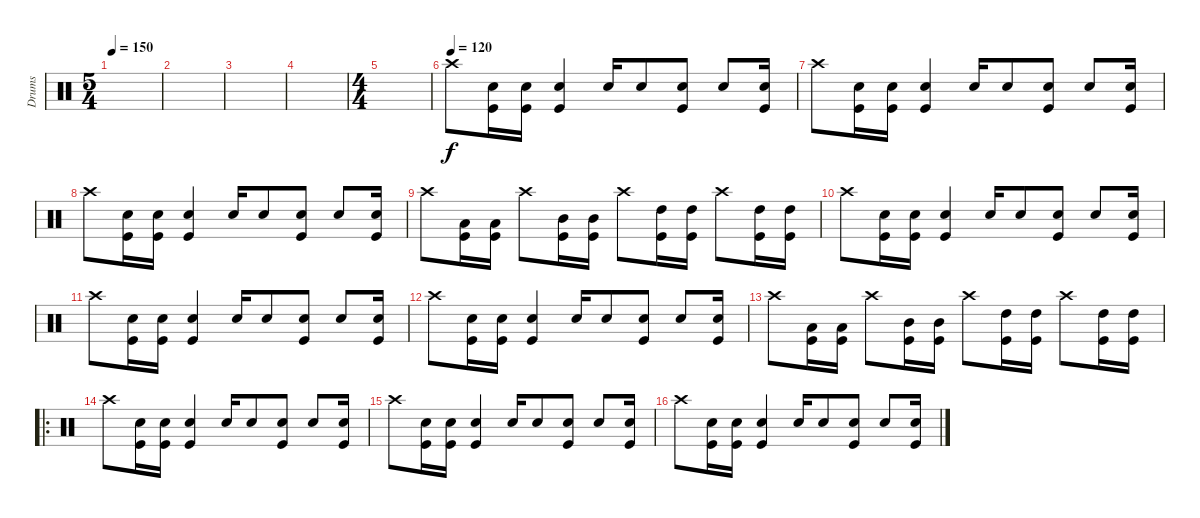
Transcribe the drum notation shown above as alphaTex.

\track ("Drums" "Drums") {instrument percussion}
\staff {score}
\articulation defaults
\ts (5 4)
\tempo 150
\clef neutral
\ks c
|
|
|
|
\ts (4 4)
|
\tempo (120)
"Crash high (hit)".8 ("Snare (hit) 2" "Kick (hit)").16 ("Snare (hit) 2" "Kick (hit)").16 ("Snare (hit) 2" "Kick (hit)").4 "Snare (hit) 2".16 "Snare (hit) 2".8 ("Snare (hit) 2" "Kick (hit)").8 "Snare (hit) 2".8 ("Snare (hit) 2" "Kick (hit)").16 |
"Crash high (hit)".8 ("Snare (hit) 2" "Kick (hit)").16 ("Snare (hit) 2" "Kick (hit)").16 ("Snare (hit) 2" "Kick (hit)").4 "Snare (hit) 2".16 "Snare (hit) 2".8 ("Snare (hit) 2" "Kick (hit)").8 "Snare (hit) 2".8 ("Snare (hit) 2" "Kick (hit)").16 |
"Crash high (hit)".8 ("Snare (hit) 2" "Kick (hit)").16 ("Snare (hit) 2" "Kick (hit)").16 ("Snare (hit) 2" "Kick (hit)").4 "Snare (hit) 2".16 "Snare (hit) 2".8 ("Snare (hit) 2" "Kick (hit)").8 "Snare (hit) 2".8 ("Snare (hit) 2" "Kick (hit)").16 |
"Crash high (hit)".8 ("Low Tom (hit)" "Kick (hit)").16 ("Low Tom (hit)" "Kick (hit)").16 "Crash high (hit)".8 ("Mid Tom (hit)" "Kick (hit)").16 ("Mid Tom (hit)" "Kick (hit)").16 "Crash high (hit)".8 ("High Tom (hit)" "Kick (hit)").16 ("High Tom (hit)" "Kick (hit)").16 "Crash high (hit)".8 ("High Tom (hit)" "Kick (hit)").16 ("High Tom (hit)" "Kick (hit)").16 |
"Crash high (hit)".8 ("Snare (hit) 2" "Kick (hit)").16 ("Snare (hit) 2" "Kick (hit)").16 ("Snare (hit) 2" "Kick (hit)").4 "Snare (hit) 2".16 "Snare (hit) 2".8 ("Snare (hit) 2" "Kick (hit)").8 "Snare (hit) 2".8 ("Snare (hit) 2" "Kick (hit)").16 |
"Crash high (hit)".8 ("Snare (hit) 2" "Kick (hit)").16 ("Snare (hit) 2" "Kick (hit)").16 ("Snare (hit) 2" "Kick (hit)").4 "Snare (hit) 2".16 "Snare (hit) 2".8 ("Snare (hit) 2" "Kick (hit)").8 "Snare (hit) 2".8 ("Snare (hit) 2" "Kick (hit)").16 |
"Crash high (hit)".8 ("Snare (hit) 2" "Kick (hit)").16 ("Snare (hit) 2" "Kick (hit)").16 ("Snare (hit) 2" "Kick (hit)").4 "Snare (hit) 2".16 "Snare (hit) 2".8 ("Snare (hit) 2" "Kick (hit)").8 "Snare (hit) 2".8 ("Snare (hit) 2" "Kick (hit)").16 |
"Crash high (hit)".8 ("Low Tom (hit)" "Kick (hit)").16 ("Low Tom (hit)" "Kick (hit)").16 "Crash high (hit)".8 ("Mid Tom (hit)" "Kick (hit)").16 ("Mid Tom (hit)" "Kick (hit)").16 "Crash high (hit)".8 ("High Tom (hit)" "Kick (hit)").16 ("High Tom (hit)" "Kick (hit)").16 "Crash high (hit)".8 ("High Tom (hit)" "Kick (hit)").16 ("High Tom (hit)" "Kick (hit)").16 |
\ro "Crash high (hit)".8
("Snare (hit) 2" "Kick (hit)").16 ("Snare (hit) 2" "Kick (hit)").16 ("Snare (hit) 2" "Kick (hit)").4 "Snare (hit) 2".16 "Snare (hit) 2".8 ("Snare (hit) 2" "Kick (hit)").8 "Snare (hit) 2".8 ("Snare (hit) 2" "Kick (hit)").16 |
"Crash high (hit)".8 ("Snare (hit) 2" "Kick (hit)").16 ("Snare (hit) 2" "Kick (hit)").16 ("Snare (hit) 2" "Kick (hit)").4 "Snare (hit) 2".16 "Snare (hit) 2".8 ("Snare (hit) 2" "Kick (hit)").8 "Snare (hit) 2".8 ("Snare (hit) 2" "Kick (hit)").16 |
"Crash high (hit)".8 ("Snare (hit) 2" "Kick (hit)").16 ("Snare (hit) 2" "Kick (hit)").16 ("Snare (hit) 2" "Kick (hit)").4 "Snare (hit) 2".16 "Snare (hit) 2".8 ("Snare (hit) 2" "Kick (hit)").8 "Snare (hit) 2".8 ("Snare (hit) 2" "Kick (hit)").16
